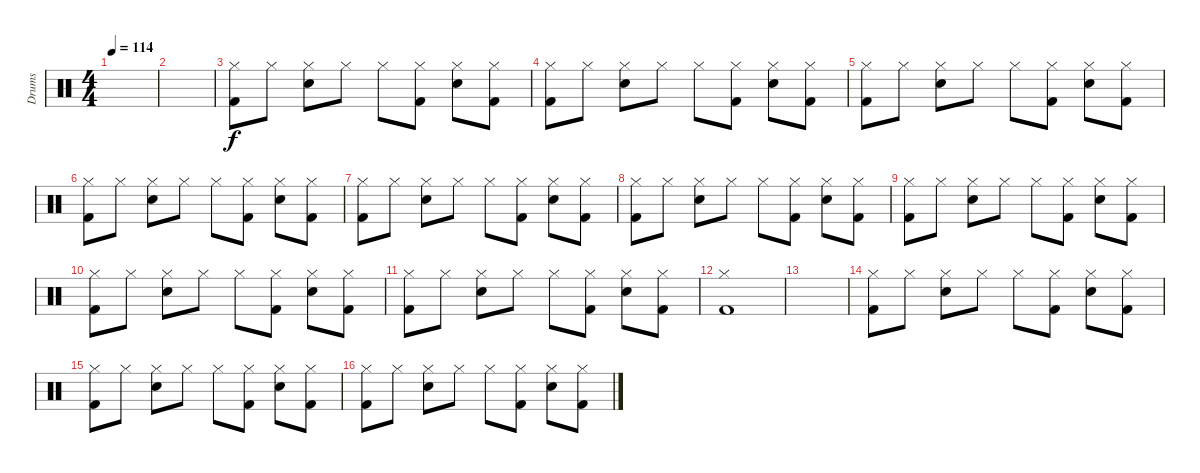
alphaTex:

\track ("Drums" "Drums") {instrument percussion}
\staff {score}
\articulation defaults
\ts (4 4)
\tempo 114
\clef neutral
\ks c
|
|
("Hi-Hat (closed)" "Kick (hit) 2").8 "Hi-Hat (closed)".8 ("Hi-Hat (closed)" "Electric Snare (hit)").8 "Hi-Hat (closed)".8 "Hi-Hat (closed)".8 ("Hi-Hat (closed)" "Kick (hit) 2").8 ("Hi-Hat (closed)" "Electric Snare (hit)").8 ("Hi-Hat (closed)" "Kick (hit) 2").8 |
("Hi-Hat (closed)" "Kick (hit) 2").8 "Hi-Hat (closed)".8 ("Hi-Hat (closed)" "Electric Snare (hit)").8 "Hi-Hat (closed)".8 "Hi-Hat (closed)".8 ("Hi-Hat (closed)" "Kick (hit) 2").8 ("Hi-Hat (closed)" "Electric Snare (hit)").8 ("Hi-Hat (closed)" "Kick (hit) 2").8 |
("Hi-Hat (closed)" "Kick (hit) 2").8 "Hi-Hat (closed)".8 ("Hi-Hat (closed)" "Electric Snare (hit)").8 "Hi-Hat (closed)".8 "Hi-Hat (closed)".8 ("Hi-Hat (closed)" "Kick (hit) 2").8 ("Hi-Hat (closed)" "Electric Snare (hit)").8 ("Hi-Hat (closed)" "Kick (hit) 2").8 |
("Hi-Hat (closed)" "Kick (hit) 2").8 "Hi-Hat (closed)".8 ("Hi-Hat (closed)" "Electric Snare (hit)").8 "Hi-Hat (closed)".8 "Hi-Hat (closed)".8 ("Hi-Hat (closed)" "Kick (hit) 2").8 ("Hi-Hat (closed)" "Electric Snare (hit)").8 ("Hi-Hat (closed)" "Kick (hit) 2").8 |
("Hi-Hat (closed)" "Kick (hit) 2").8 "Hi-Hat (closed)".8 ("Hi-Hat (closed)" "Electric Snare (hit)").8 "Hi-Hat (closed)".8 "Hi-Hat (closed)".8 ("Hi-Hat (closed)" "Kick (hit) 2").8 ("Hi-Hat (closed)" "Electric Snare (hit)").8 ("Hi-Hat (closed)" "Kick (hit) 2").8 |
("Hi-Hat (closed)" "Kick (hit) 2").8 "Hi-Hat (closed)".8 ("Hi-Hat (closed)" "Electric Snare (hit)").8 "Hi-Hat (closed)".8 "Hi-Hat (closed)".8 ("Hi-Hat (closed)" "Kick (hit) 2").8 ("Hi-Hat (closed)" "Electric Snare (hit)").8 ("Hi-Hat (closed)" "Kick (hit) 2").8 |
("Hi-Hat (closed)" "Kick (hit) 2").8 "Hi-Hat (closed)".8 ("Hi-Hat (closed)" "Electric Snare (hit)").8 "Hi-Hat (closed)".8 "Hi-Hat (closed)".8 ("Hi-Hat (closed)" "Kick (hit) 2").8 ("Hi-Hat (closed)" "Electric Snare (hit)").8 ("Hi-Hat (closed)" "Kick (hit) 2").8 |
("Hi-Hat (closed)" "Kick (hit) 2").8 "Hi-Hat (closed)".8 ("Hi-Hat (closed)" "Electric Snare (hit)").8 "Hi-Hat (closed)".8 "Hi-Hat (closed)".8 ("Hi-Hat (closed)" "Kick (hit) 2").8 ("Hi-Hat (closed)" "Electric Snare (hit)").8 ("Hi-Hat (closed)" "Kick (hit) 2").8 |
("Hi-Hat (closed)" "Kick (hit) 2").8 "Hi-Hat (closed)".8 ("Hi-Hat (closed)" "Electric Snare (hit)").8 "Hi-Hat (closed)".8 "Hi-Hat (closed)".8 ("Hi-Hat (closed)" "Kick (hit) 2").8 ("Hi-Hat (closed)" "Electric Snare (hit)").8 ("Hi-Hat (closed)" "Kick (hit) 2").8 |
("Hi-Hat (closed)" "Kick (hit) 2").1 |
|
("Hi-Hat (closed)" "Kick (hit) 2").8 "Hi-Hat (closed)".8 ("Hi-Hat (closed)" "Electric Snare (hit)").8 "Hi-Hat (closed)".8 "Hi-Hat (closed)".8 ("Hi-Hat (closed)" "Kick (hit) 2").8 ("Hi-Hat (closed)" "Electric Snare (hit)").8 ("Hi-Hat (closed)" "Kick (hit) 2").8 |
("Hi-Hat (closed)" "Kick (hit) 2").8 "Hi-Hat (closed)".8 ("Hi-Hat (closed)" "Electric Snare (hit)").8 "Hi-Hat (closed)".8 "Hi-Hat (closed)".8 ("Hi-Hat (closed)" "Kick (hit) 2").8 ("Hi-Hat (closed)" "Electric Snare (hit)").8 ("Hi-Hat (closed)" "Kick (hit) 2").8 |
("Hi-Hat (closed)" "Kick (hit) 2").8 "Hi-Hat (closed)".8 ("Hi-Hat (closed)" "Electric Snare (hit)").8 "Hi-Hat (closed)".8 "Hi-Hat (closed)".8 ("Hi-Hat (closed)" "Kick (hit) 2").8 ("Hi-Hat (closed)" "Electric Snare (hit)").8 ("Hi-Hat (closed)" "Kick (hit) 2").8
